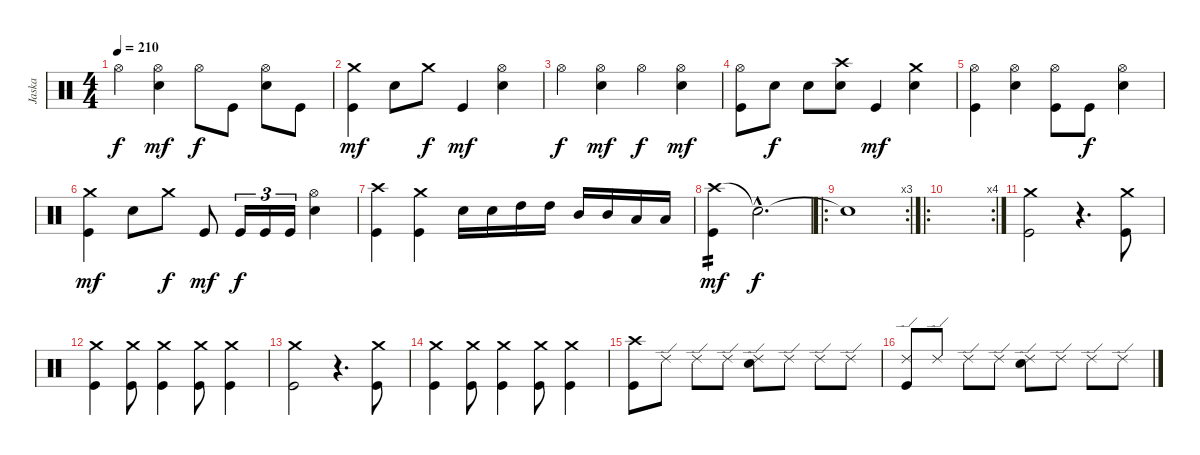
\track ("Jaska" "Jaska") {instrument percussion}
\staff {score}
\articulation defaults
\ts (4 4)
\tempo 210
\clef neutral
\ks c "Hi-Hat (open)".4{dy f}
("Hi-Hat (open)" "Electric Snare (hit)").4{dy mf} "Hi-Hat (open)".8{dy f} "Kick (hit)".8 ("Hi-Hat (open)" "Electric Snare (hit)").8 "Kick (hit)".8 |
("Crash medium (hit)" "Kick (hit)").4{dy mf} "Electric Snare (hit)".8 "Crash medium (hit)".8{dy f} "Kick (hit)".4{dy mf} ("Hi-Hat (open)" "Electric Snare (hit)").4 |
"Hi-Hat (open)".4{dy f} ("Hi-Hat (open)" "Electric Snare (hit)").4{dy mf} "Hi-Hat (open)".4{dy f} ("Hi-Hat (open)" "Electric Snare (hit)").4{dy mf} |
("Hi-Hat (open)" "Kick (hit)").8 "Electric Snare (hit)".8{dy f} "Electric Snare (hit)".8 ("Crash high (hit)" "Electric Snare (hit)").8 "Kick (hit)".4{dy mf} ("Crash medium (hit)" "Electric Snare (hit)").4 |
("Hi-Hat (open)" "Kick (hit)").4 ("Hi-Hat (open)" "Electric Snare (hit)").4 ("Hi-Hat (open)" "Kick (hit)").8 "Kick (hit)".8{dy f} ("Hi-Hat (open)" "Electric Snare (hit)").4 |
("Crash medium (hit)" "Kick (hit)").4{dy mf} "Electric Snare (hit)".8 "Crash medium (hit)".8{dy f} "Kick (hit)".8{dy mf} "Kick (hit)".16{tu (3 2) dy f} "Kick (hit)".16{tu (3 2)} "Kick (hit)".16{tu (3 2)} ("Hi-Hat (open)" "Electric Snare (hit)").4 |
("Crash high (hit)" "Kick (hit)").4 ("Crash medium (hit)" "Kick (hit)").4 "Electric Snare (hit)".16 "Electric Snare (hit)".16 "High Tom (hit)".16 "High Tom (hit)".16 "Mid Tom (hit)".16 "Mid Tom (hit)".16 "Low Tom (hit)".16 "Low Tom (hit)".16 |
("Crash high (hit)" "Kick (hit)").4{tp 2 dy mf} "Snare (hit)"{hac t}.2{d dy f} |
\ro
\rc 3 "Snare (hit)"{t}.1
|
\ro
\rc 4
|
("Crash medium (hit)" "Kick (hit)").2 r.4{d} ("Crash medium (hit)" "Kick (hit)").8 |
("Crash medium (hit)" "Kick (hit)").4 ("Crash medium (hit)" "Kick (hit)").8 ("Crash medium (hit)" "Kick (hit)").4 ("Crash medium (hit)" "Kick (hit)").8 ("Crash medium (hit)" "Kick (hit)").4 |
("Crash medium (hit)" "Kick (hit)").2 r.4{d} ("Crash medium (hit)" "Kick (hit)").8 |
("Crash medium (hit)" "Kick (hit)").4 ("Crash medium (hit)" "Kick (hit)").8 ("Crash medium (hit)" "Kick (hit)").4 ("Crash medium (hit)" "Kick (hit)").8 ("Crash medium (hit)" "Kick (hit)").4 |
("Crash high (hit)" "Kick (hit)").8 "Ride (edge) 2".8 "Ride (edge) 2".8 "Ride (edge) 2".8 ("Ride (edge) 2" "Electric Snare (hit)").8 "Ride (edge) 2".8 "Ride (edge) 2".8 "Ride (edge) 2".8 |
("Ride (edge) 2" "Kick (hit)").8 "Ride (edge) 2".8 "Ride (edge) 2".8 "Ride (edge) 2".8 ("Ride (edge) 2" "Electric Snare (hit)").8 "Ride (edge) 2".8 "Ride (edge) 2".8 "Ride (edge) 2".8
